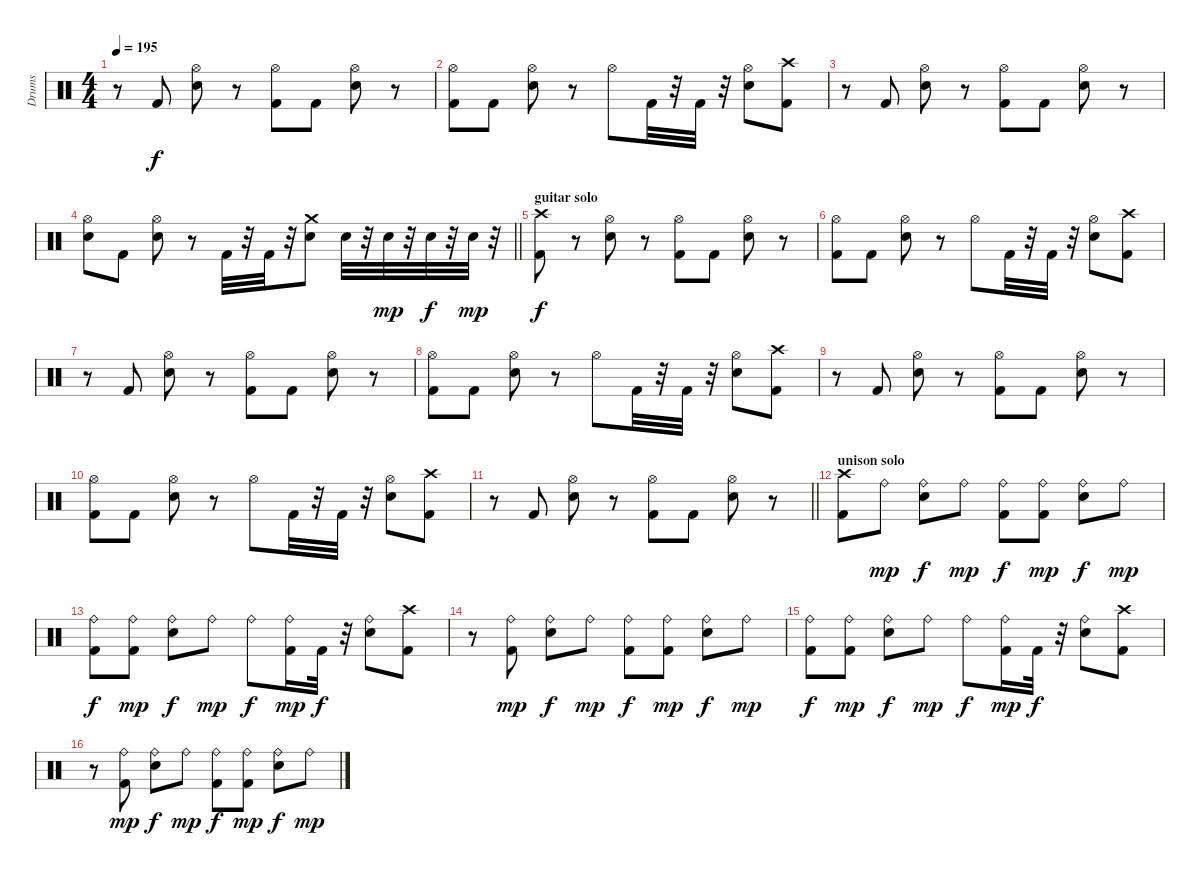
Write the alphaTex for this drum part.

\track ("Drums" "Drums") {instrument percussion}
\staff {score}
\articulation defaults
\ts (4 4)
\tempo 195
\clef neutral
\ks c
r.8{dy f} "Kick (hit) 2".8 ("Electric Snare (hit)" "Hi-Hat (open)").8 r.8 ("Kick (hit) 2" "Hi-Hat (open)").8 "Kick (hit) 2".8 ("Electric Snare (hit)" "Hi-Hat (open)").8 r.8 |
("Kick (hit) 2" "Hi-Hat (open)").8 "Kick (hit) 2".8 ("Electric Snare (hit)" "Hi-Hat (open)").8 r.8 "Hi-Hat (open)".8 "Kick (hit) 2".32 r.32 "Kick (hit) 2".32 r.32 ("Electric Snare (hit)" "Hi-Hat (open)").8 ("Kick (hit) 2" "Crash high (hit)").8 |
r.8 "Kick (hit) 2".8 ("Electric Snare (hit)" "Hi-Hat (open)").8 r.8 ("Kick (hit) 2" "Hi-Hat (open)").8 "Kick (hit) 2".8 ("Electric Snare (hit)" "Hi-Hat (open)").8 r.8 |
\barLineRight lightlight
("Hi-Hat (open)" "Electric Snare (hit)").8 "Kick (hit) 2".8 ("Electric Snare (hit)" "Hi-Hat (open)").8 r.8 "Kick (hit) 2".32 r.32 "Kick (hit) 2".32 r.32 ("Electric Snare (hit)" "Crash medium (hit)").8 "Electric Snare (hit)".32 r.32 "Electric Snare (hit)".32{dy mp} r.32 "Electric Snare (hit)".32{dy f} r.32 "Electric Snare (hit)".32{dy mp} r.32 |
\section ("" "guitar solo")
("Kick (hit) 2" "Crash high (hit)").8{dy f} r.8 ("Electric Snare (hit)" "Hi-Hat (open)").8 r.8 ("Kick (hit) 2" "Hi-Hat (open)").8 "Kick (hit) 2".8 ("Electric Snare (hit)" "Hi-Hat (open)").8 r.8 |
("Kick (hit) 2" "Hi-Hat (open)").8 "Kick (hit) 2".8 ("Electric Snare (hit)" "Hi-Hat (open)").8 r.8 "Hi-Hat (open)".8 "Kick (hit) 2".32 r.32 "Kick (hit) 2".32 r.32 ("Electric Snare (hit)" "Hi-Hat (open)").8 ("Kick (hit) 2" "Crash high (hit)").8 |
r.8 "Kick (hit) 2".8 ("Electric Snare (hit)" "Hi-Hat (open)").8 r.8 ("Kick (hit) 2" "Hi-Hat (open)").8 "Kick (hit) 2".8 ("Electric Snare (hit)" "Hi-Hat (open)").8 r.8 |
("Kick (hit) 2" "Hi-Hat (open)").8 "Kick (hit) 2".8 ("Electric Snare (hit)" "Hi-Hat (open)").8 r.8 "Hi-Hat (open)".8 "Kick (hit) 2".32 r.32 "Kick (hit) 2".32 r.32 ("Electric Snare (hit)" "Hi-Hat (open)").8 ("Kick (hit) 2" "Crash high (hit)").8 |
r.8 "Kick (hit) 2".8 ("Electric Snare (hit)" "Hi-Hat (open)").8 r.8 ("Kick (hit) 2" "Hi-Hat (open)").8 "Kick (hit) 2".8 ("Electric Snare (hit)" "Hi-Hat (open)").8 r.8 |
("Kick (hit) 2" "Hi-Hat (open)").8 "Kick (hit) 2".8 ("Electric Snare (hit)" "Hi-Hat (open)").8 r.8 "Hi-Hat (open)".8 "Kick (hit) 2".32 r.32 "Kick (hit) 2".32 r.32 ("Electric Snare (hit)" "Hi-Hat (open)").8 ("Kick (hit) 2" "Crash high (hit)").8 |
\barLineRight lightlight
r.8 "Kick (hit) 2".8 ("Electric Snare (hit)" "Hi-Hat (open)").8 r.8 ("Kick (hit) 2" "Hi-Hat (open)").8 "Kick (hit) 2".8 ("Electric Snare (hit)" "Hi-Hat (open)").8 r.8 |
\section ("" "unison solo")
("Kick (hit) 2" "Crash high (hit)").8 "Ride (bell)".8{dy mp} ("Electric Snare (hit)" "Ride (bell)").8{dy f} "Ride (bell)".8{dy mp} ("Kick (hit) 2" "Ride (bell)").8{dy f} ("Kick (hit) 2" "Ride (bell)").8{dy mp} ("Electric Snare (hit)" "Ride (bell)").8{dy f} "Ride (bell)".8{dy mp} |
("Kick (hit) 2" "Ride (bell)").8{dy f} ("Kick (hit) 2" "Ride (bell)").8{dy mp} ("Electric Snare (hit)" "Ride (bell)").8{dy f} "Ride (bell)".8{dy mp} "Ride (bell)".8{dy f} ("Kick (hit) 2" "Ride (bell)").16{dy mp} "Kick (hit) 2".32{dy f} r.32 ("Electric Snare (hit)" "Ride (bell)").8 ("Kick (hit) 2" "Crash high (hit)").8 |
r.8 ("Kick (hit) 2" "Ride (bell)").8{dy mp} ("Electric Snare (hit)" "Ride (bell)").8{dy f} "Ride (bell)".8{dy mp} ("Kick (hit) 2" "Ride (bell)").8{dy f} ("Kick (hit) 2" "Ride (bell)").8{dy mp} ("Electric Snare (hit)" "Ride (bell)").8{dy f} "Ride (bell)".8{dy mp} |
("Kick (hit) 2" "Ride (bell)").8{dy f} ("Kick (hit) 2" "Ride (bell)").8{dy mp} ("Electric Snare (hit)" "Ride (bell)").8{dy f} "Ride (bell)".8{dy mp} "Ride (bell)".8{dy f} ("Kick (hit) 2" "Ride (bell)").16{dy mp} "Kick (hit) 2".32{dy f} r.32 ("Electric Snare (hit)" "Ride (bell)").8 ("Kick (hit) 2" "Crash high (hit)").8 |
r.8 ("Kick (hit) 2" "Ride (bell)").8{dy mp} ("Electric Snare (hit)" "Ride (bell)").8{dy f} "Ride (bell)".8{dy mp} ("Kick (hit) 2" "Ride (bell)").8{dy f} ("Kick (hit) 2" "Ride (bell)").8{dy mp} ("Electric Snare (hit)" "Ride (bell)").8{dy f} "Ride (bell)".8{dy mp}
